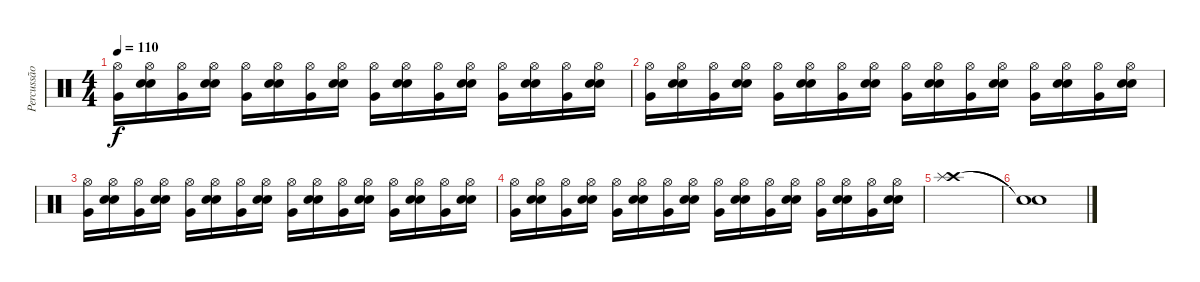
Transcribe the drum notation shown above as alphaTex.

\track ("Percussão" "Percussão") {instrument percussion}
\staff {score}
\articulation defaults
\ts (4 4)
\tempo 110
\clef neutral
\ks c
("Hi-Hat (open)" "Very Low Tom (hit)").16{dy f} ("Hi-Hat (open)" "Electric Snare (hit)" "Snare (hit) 2").16 ("Hi-Hat (open)" "Very Low Tom (hit)").16 ("Hi-Hat (open)" "Electric Snare (hit)" "Snare (hit) 2").16 ("Hi-Hat (open)" "Very Low Tom (hit)").16 ("Hi-Hat (open)" "Electric Snare (hit)" "Snare (hit) 2").16 ("Hi-Hat (open)" "Very Low Tom (hit)").16 ("Hi-Hat (open)" "Electric Snare (hit)" "Snare (hit) 2").16 ("Hi-Hat (open)" "Very Low Tom (hit)").16 ("Hi-Hat (open)" "Electric Snare (hit)" "Snare (hit) 2").16 ("Hi-Hat (open)" "Very Low Tom (hit)").16 ("Hi-Hat (open)" "Electric Snare (hit)" "Snare (hit) 2").16 ("Hi-Hat (open)" "Very Low Tom (hit)").16 ("Hi-Hat (open)" "Electric Snare (hit)" "Snare (hit) 2").16 ("Hi-Hat (open)" "Very Low Tom (hit)").16 ("Hi-Hat (open)" "Electric Snare (hit)" "Snare (hit) 2").16 |
("Hi-Hat (open)" "Very Low Tom (hit)").16 ("Hi-Hat (open)" "Electric Snare (hit)" "Snare (hit) 2").16 ("Hi-Hat (open)" "Very Low Tom (hit)").16 ("Hi-Hat (open)" "Electric Snare (hit)" "Snare (hit) 2").16 ("Hi-Hat (open)" "Very Low Tom (hit)").16 ("Hi-Hat (open)" "Electric Snare (hit)" "Snare (hit) 2").16 ("Hi-Hat (open)" "Very Low Tom (hit)").16 ("Hi-Hat (open)" "Electric Snare (hit)" "Snare (hit) 2").16 ("Hi-Hat (open)" "Very Low Tom (hit)").16 ("Hi-Hat (open)" "Electric Snare (hit)" "Snare (hit) 2").16 ("Hi-Hat (open)" "Very Low Tom (hit)").16 ("Hi-Hat (open)" "Electric Snare (hit)" "Snare (hit) 2").16 ("Hi-Hat (open)" "Very Low Tom (hit)").16 ("Hi-Hat (open)" "Electric Snare (hit)" "Snare (hit) 2").16 ("Hi-Hat (open)" "Very Low Tom (hit)").16 ("Hi-Hat (open)" "Electric Snare (hit)" "Snare (hit) 2").16 |
("Hi-Hat (open)" "Very Low Tom (hit)").16 ("Hi-Hat (open)" "Electric Snare (hit)" "Snare (hit) 2").16 ("Hi-Hat (open)" "Very Low Tom (hit)").16 ("Hi-Hat (open)" "Electric Snare (hit)" "Snare (hit) 2").16 ("Hi-Hat (open)" "Very Low Tom (hit)").16 ("Hi-Hat (open)" "Electric Snare (hit)" "Snare (hit) 2").16 ("Hi-Hat (open)" "Very Low Tom (hit)").16 ("Hi-Hat (open)" "Electric Snare (hit)" "Snare (hit) 2").16 ("Hi-Hat (open)" "Very Low Tom (hit)").16 ("Hi-Hat (open)" "Electric Snare (hit)" "Snare (hit) 2").16 ("Hi-Hat (open)" "Very Low Tom (hit)").16 ("Hi-Hat (open)" "Electric Snare (hit)" "Snare (hit) 2").16 ("Hi-Hat (open)" "Very Low Tom (hit)").16 ("Hi-Hat (open)" "Electric Snare (hit)" "Snare (hit) 2").16 ("Hi-Hat (open)" "Very Low Tom (hit)").16 ("Hi-Hat (open)" "Electric Snare (hit)" "Snare (hit) 2").16 |
("Hi-Hat (open)" "Very Low Tom (hit)").16 ("Hi-Hat (open)" "Electric Snare (hit)" "Snare (hit) 2").16 ("Hi-Hat (open)" "Very Low Tom (hit)").16 ("Hi-Hat (open)" "Electric Snare (hit)" "Snare (hit) 2").16 ("Hi-Hat (open)" "Very Low Tom (hit)").16 ("Hi-Hat (open)" "Electric Snare (hit)" "Snare (hit) 2").16 ("Hi-Hat (open)" "Very Low Tom (hit)").16 ("Hi-Hat (open)" "Electric Snare (hit)" "Snare (hit) 2").16 ("Hi-Hat (open)" "Very Low Tom (hit)").16 ("Hi-Hat (open)" "Electric Snare (hit)" "Snare (hit) 2").16 ("Hi-Hat (open)" "Very Low Tom (hit)").16 ("Hi-Hat (open)" "Electric Snare (hit)" "Snare (hit) 2").16 ("Hi-Hat (open)" "Very Low Tom (hit)").16 ("Hi-Hat (open)" "Electric Snare (hit)" "Snare (hit) 2").16 ("Hi-Hat (open)" "Very Low Tom (hit)").16 ("Hi-Hat (open)" "Electric Snare (hit)" "Snare (hit) 2").16 |
("Crash high (hit)" "Splash (hit)").1 |
("Snare (hit)"{t} "Snare (hit)"{t}).1
